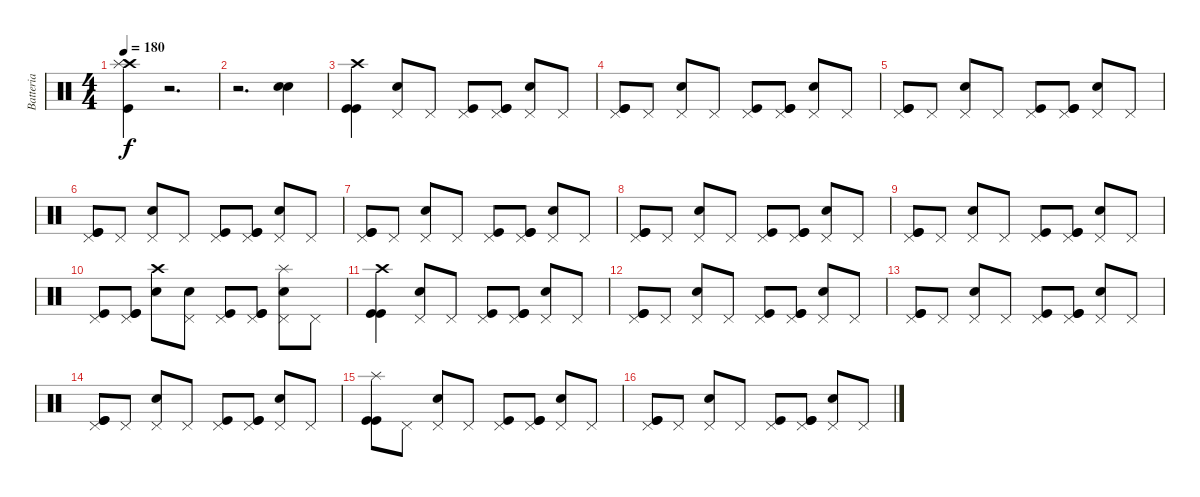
\track ("Batteria" "Batteria") {instrument percussion}
\staff {score}
\articulation defaults
\ts (4 4)
\tempo 180
\clef neutral
\ks c
("Kick (hit)" "Crash high (hit)" "Splash (hit)").4{dy f} r.2{d} |
r.2{d} ("Snare (hit) 2" "Snare (hit) 2").4 |
("Crash high (hit)" "Kick (hit)" "Kick (hit)").4 ("Snare (hit) 2" "Pedal Hi-Hat (hit)").8 "Pedal Hi-Hat (hit)".8 ("Kick (hit)" "Pedal Hi-Hat (hit)").8 ("Kick (hit)" "Kick (hit)" "Pedal Hi-Hat (hit)").8 ("Snare (hit) 2" "Pedal Hi-Hat (hit)").8 "Pedal Hi-Hat (hit)".8 |
("Kick (hit)" "Kick (hit)" "Pedal Hi-Hat (hit)").8 "Pedal Hi-Hat (hit)".8 ("Snare (hit) 2" "Pedal Hi-Hat (hit)").8 "Pedal Hi-Hat (hit)".8 ("Kick (hit)" "Pedal Hi-Hat (hit)").8 ("Kick (hit)" "Kick (hit)" "Pedal Hi-Hat (hit)").8 ("Snare (hit) 2" "Pedal Hi-Hat (hit)").8 "Pedal Hi-Hat (hit)".8 |
("Pedal Hi-Hat (hit)" "Kick (hit)" "Kick (hit)").8 "Pedal Hi-Hat (hit)".8 ("Snare (hit) 2" "Pedal Hi-Hat (hit)").8 "Pedal Hi-Hat (hit)".8 ("Kick (hit)" "Pedal Hi-Hat (hit)").8 ("Kick (hit)" "Kick (hit)" "Pedal Hi-Hat (hit)").8 ("Snare (hit) 2" "Pedal Hi-Hat (hit)").8 "Pedal Hi-Hat (hit)".8 |
("Pedal Hi-Hat (hit)" "Kick (hit)" "Kick (hit)").8 "Pedal Hi-Hat (hit)".8 ("Snare (hit) 2" "Pedal Hi-Hat (hit)").8 "Pedal Hi-Hat (hit)".8 ("Kick (hit)" "Pedal Hi-Hat (hit)").8 ("Kick (hit)" "Kick (hit)" "Pedal Hi-Hat (hit)").8 ("Snare (hit) 2" "Pedal Hi-Hat (hit)").8 "Pedal Hi-Hat (hit)".8 |
("Kick (hit)" "Kick (hit)" "Pedal Hi-Hat (hit)").8 "Pedal Hi-Hat (hit)".8 ("Snare (hit) 2" "Pedal Hi-Hat (hit)").8 "Pedal Hi-Hat (hit)".8 ("Kick (hit)" "Pedal Hi-Hat (hit)").8 ("Kick (hit)" "Kick (hit)" "Pedal Hi-Hat (hit)").8 ("Snare (hit) 2" "Pedal Hi-Hat (hit)").8 "Pedal Hi-Hat (hit)".8 |
("Pedal Hi-Hat (hit)" "Kick (hit)" "Kick (hit)").8 "Pedal Hi-Hat (hit)".8 ("Snare (hit) 2" "Pedal Hi-Hat (hit)").8 "Pedal Hi-Hat (hit)".8 ("Kick (hit)" "Pedal Hi-Hat (hit)").8 ("Kick (hit)" "Kick (hit)" "Pedal Hi-Hat (hit)").8 ("Snare (hit) 2" "Pedal Hi-Hat (hit)").8 "Pedal Hi-Hat (hit)".8 |
("Kick (hit)" "Kick (hit)" "Pedal Hi-Hat (hit)").8 "Pedal Hi-Hat (hit)".8 ("Snare (hit) 2" "Pedal Hi-Hat (hit)").8 "Pedal Hi-Hat (hit)".8 ("Kick (hit)" "Pedal Hi-Hat (hit)").8 ("Kick (hit)" "Kick (hit)" "Pedal Hi-Hat (hit)").8 ("Snare (hit) 2" "Pedal Hi-Hat (hit)").8 "Pedal Hi-Hat (hit)".8 |
("Pedal Hi-Hat (hit)" "Kick (hit)").8 ("Kick (hit)" "Kick (hit)" "Pedal Hi-Hat (hit)").8 ("Snare (hit) 2" "Crash high (hit)").8 ("Pedal Hi-Hat (hit)" "Snare (hit) 2").8 ("Kick (hit)" "Pedal Hi-Hat (hit)").8 ("Kick (hit)" "Kick (hit)" "Pedal Hi-Hat (hit)").8 ("Snare (hit) 2" "Pedal Hi-Hat (hit)" "Splash (hit)").8 "Pedal Hi-Hat (hit)".8 |
("Kick (hit)" "Kick (hit)" "Crash high (hit)").4 ("Snare (hit) 2" "Pedal Hi-Hat (hit)").8 "Pedal Hi-Hat (hit)".8 ("Kick (hit)" "Pedal Hi-Hat (hit)").8 ("Kick (hit)" "Kick (hit)" "Pedal Hi-Hat (hit)").8 ("Snare (hit) 2" "Pedal Hi-Hat (hit)").8 "Pedal Hi-Hat (hit)".8 |
("Kick (hit)" "Kick (hit)" "Pedal Hi-Hat (hit)").8 "Pedal Hi-Hat (hit)".8 ("Snare (hit) 2" "Pedal Hi-Hat (hit)").8 "Pedal Hi-Hat (hit)".8 ("Kick (hit)" "Pedal Hi-Hat (hit)").8 ("Kick (hit)" "Kick (hit)" "Pedal Hi-Hat (hit)").8 ("Snare (hit) 2" "Pedal Hi-Hat (hit)").8 "Pedal Hi-Hat (hit)".8 |
("Pedal Hi-Hat (hit)" "Kick (hit)" "Kick (hit)").8 "Pedal Hi-Hat (hit)".8 ("Snare (hit) 2" "Pedal Hi-Hat (hit)").8 "Pedal Hi-Hat (hit)".8 ("Kick (hit)" "Pedal Hi-Hat (hit)").8 ("Kick (hit)" "Kick (hit)" "Pedal Hi-Hat (hit)").8 ("Snare (hit) 2" "Pedal Hi-Hat (hit)").8 "Pedal Hi-Hat (hit)".8 |
("Pedal Hi-Hat (hit)" "Kick (hit)" "Kick (hit)").8 "Pedal Hi-Hat (hit)".8 ("Snare (hit) 2" "Pedal Hi-Hat (hit)").8 "Pedal Hi-Hat (hit)".8 ("Kick (hit)" "Pedal Hi-Hat (hit)").8 ("Kick (hit)" "Kick (hit)" "Pedal Hi-Hat (hit)").8 ("Snare (hit) 2" "Pedal Hi-Hat (hit)").8 "Pedal Hi-Hat (hit)".8 |
("Kick (hit)" "Kick (hit)" "Splash (hit)").8 "Pedal Hi-Hat (hit)".8 ("Snare (hit) 2" "Pedal Hi-Hat (hit)").8 "Pedal Hi-Hat (hit)".8 ("Kick (hit)" "Pedal Hi-Hat (hit)").8 ("Kick (hit)" "Kick (hit)" "Pedal Hi-Hat (hit)").8 ("Snare (hit) 2" "Pedal Hi-Hat (hit)").8 "Pedal Hi-Hat (hit)".8 |
("Pedal Hi-Hat (hit)" "Kick (hit)" "Kick (hit)").8 "Pedal Hi-Hat (hit)".8 ("Snare (hit) 2" "Pedal Hi-Hat (hit)").8 "Pedal Hi-Hat (hit)".8 ("Kick (hit)" "Pedal Hi-Hat (hit)").8 ("Kick (hit)" "Kick (hit)" "Pedal Hi-Hat (hit)").8 ("Snare (hit) 2" "Pedal Hi-Hat (hit)").8 "Pedal Hi-Hat (hit)".8
